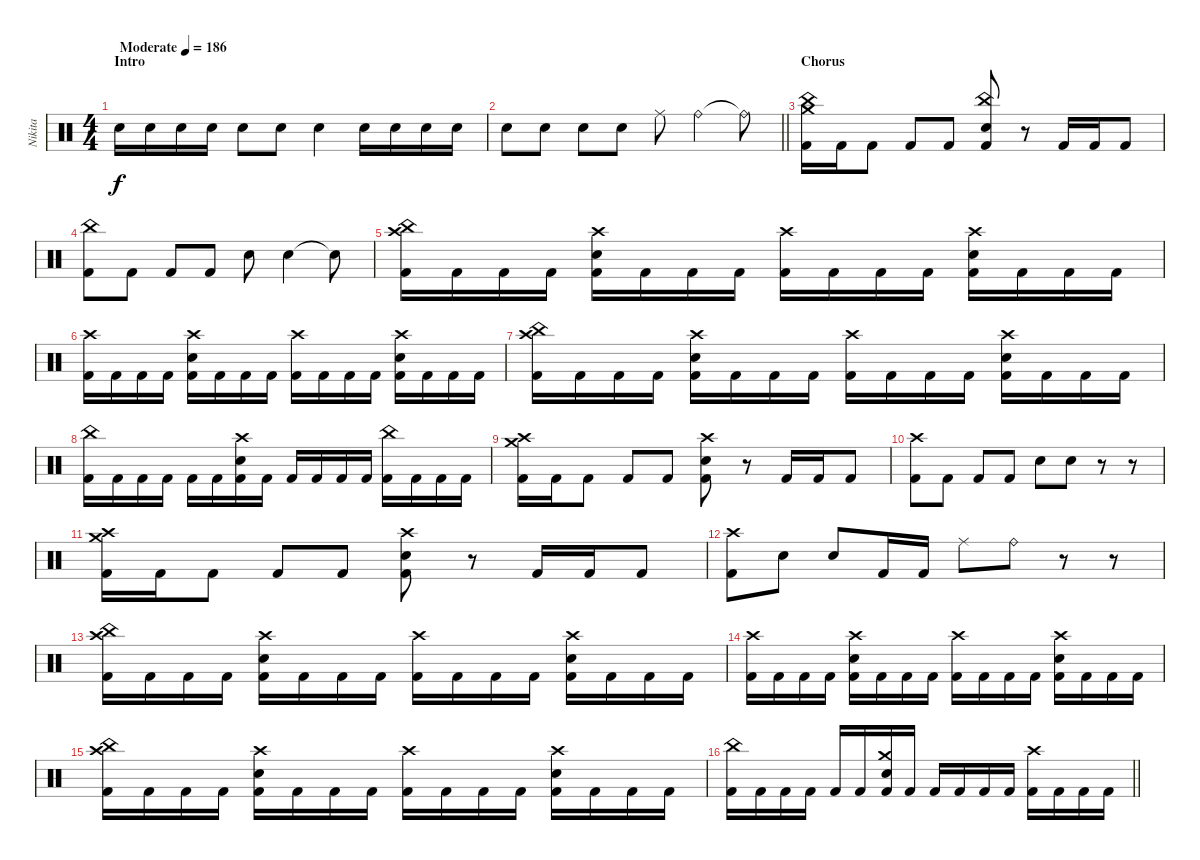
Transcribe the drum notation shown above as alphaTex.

\track ("Nikita" "Nikita") {instrument percussion}
\staff {score}
\articulation defaults
\ts (4 4)
\section ("" "Intro")
\tempo (186 "Moderate")
\clef neutral
\ks c "Electric Snare (hit)".16{dy f} "Electric Snare (hit)".16 "Electric Snare (hit)".16 "Electric Snare (hit)".16 "Electric Snare (hit)".8 "Electric Snare (hit)".8 "Electric Snare (hit)".4 "Electric Snare (hit)".16 "Electric Snare (hit)".16 "Electric Snare (hit)".16 "Electric Snare (hit)".16
|
\barLineRight lightlight "Electric Snare (hit)".8 "Electric Snare (hit)".8 "Electric Snare (hit)".8 "Electric Snare (hit)".8 "Ride (middle)".8 "Ride (bell)".4 "Ride (bell)"{t}.8
|
\section ("" "Chorus")
("China (hit)" "Crash medium (hit)" "Kick (hit) 2").16 "Kick (hit) 2".16 "Kick (hit) 2".8 "Kick (hit) 2".8 "Kick (hit) 2".8 ("China (hit)" "Electric Snare (hit)" "Kick (hit) 2").8 r.8 "Kick (hit) 2".16 "Kick (hit) 2".16 "Kick (hit) 2".8 |
("China (hit)" "Kick (hit) 2").8 "Kick (hit) 2".8 "Kick (hit) 2".8 "Kick (hit) 2".8 "Electric Snare (hit)".8 "Electric Snare (hit)".4 "Electric Snare (hit)"{t}.8 |
("China (hit)" "Crash high (hit)" "Kick (hit) 2").16 "Kick (hit) 2".16 "Kick (hit) 2".16 "Kick (hit) 2".16 ("Crash high (hit)" "Electric Snare (hit)" "Kick (hit) 2").16 "Kick (hit) 2".16 "Kick (hit) 2".16 "Kick (hit) 2".16 ("Crash high (hit)" "Kick (hit) 2").16 "Kick (hit) 2".16 "Kick (hit) 2".16 "Kick (hit) 2".16 ("Crash high (hit)" "Electric Snare (hit)" "Kick (hit) 2").16 "Kick (hit) 2".16 "Kick (hit) 2".16 "Kick (hit) 2".16 |
("Crash high (hit)" "Kick (hit) 2").16 "Kick (hit) 2".16 "Kick (hit) 2".16 "Kick (hit) 2".16 ("Crash high (hit)" "Electric Snare (hit)" "Kick (hit) 2").16 "Kick (hit) 2".16 "Kick (hit) 2".16 "Kick (hit) 2".16 ("Crash high (hit)" "Kick (hit) 2").16 "Kick (hit) 2".16 "Kick (hit) 2".16 "Kick (hit) 2".16 ("Crash high (hit)" "Electric Snare (hit)" "Kick (hit) 2").16 "Kick (hit) 2".16 "Kick (hit) 2".16 "Kick (hit) 2".16 |
("China (hit)" "Crash high (hit)" "Kick (hit) 2").16 "Kick (hit) 2".16 "Kick (hit) 2".16 "Kick (hit) 2".16 ("Crash high (hit)" "Electric Snare (hit)" "Kick (hit) 2").16 "Kick (hit) 2".16 "Kick (hit) 2".16 "Kick (hit) 2".16 ("Crash high (hit)" "Kick (hit) 2").16 "Kick (hit) 2".16 "Kick (hit) 2".16 "Kick (hit) 2".16 ("Crash high (hit)" "Electric Snare (hit)" "Kick (hit) 2").16 "Kick (hit) 2".16 "Kick (hit) 2".16 "Kick (hit) 2".16 |
("China (hit)" "Kick (hit) 2").16 "Kick (hit) 2".16 "Kick (hit) 2".16 "Kick (hit) 2".16 "Kick (hit) 2".16 "Kick (hit) 2".16 ("Crash high (hit)" "Electric Snare (hit)" "Kick (hit) 2").16 "Kick (hit) 2".16 "Kick (hit) 2".16 "Kick (hit) 2".16 "Kick (hit) 2".16 "Kick (hit) 2".16 ("China (hit)" "Kick (hit) 2").16 "Kick (hit) 2".16 "Kick (hit) 2".16 "Kick (hit) 2".16 |
("Crash high (hit)" "Crash medium (hit)" "Kick (hit) 2").16 "Kick (hit) 2".16 "Kick (hit) 2".8 "Kick (hit) 2".8 "Kick (hit) 2".8 ("Crash high (hit)" "Electric Snare (hit)" "Kick (hit) 2").8 r.8 "Kick (hit) 2".16 "Kick (hit) 2".16 "Kick (hit) 2".8 |
("Crash high (hit)" "Kick (hit) 2").8 "Kick (hit) 2".8 "Kick (hit) 2".8 "Kick (hit) 2".8 "Electric Snare (hit)".8 "Electric Snare (hit)".8 r.8 r.8 |
("Crash high (hit)" "Crash medium (hit)" "Kick (hit) 2").16 "Kick (hit) 2".16 "Kick (hit) 2".8 "Kick (hit) 2".8 "Kick (hit) 2".8 ("Crash high (hit)" "Electric Snare (hit)" "Kick (hit) 2").8 r.8 "Kick (hit) 2".16 "Kick (hit) 2".16 "Kick (hit) 2".8 |
("Crash high (hit)" "Kick (hit) 2").8 "Electric Snare (hit)".8 "Electric Snare (hit)".8 "Kick (hit) 2".16 "Kick (hit) 2".16 "Ride (middle)".8 "Ride (bell)".8 r.8 r.8 |
("China (hit)" "Crash high (hit)" "Kick (hit) 2").16 "Kick (hit) 2".16 "Kick (hit) 2".16 "Kick (hit) 2".16 ("Crash high (hit)" "Electric Snare (hit)" "Kick (hit) 2").16 "Kick (hit) 2".16 "Kick (hit) 2".16 "Kick (hit) 2".16 ("Crash high (hit)" "Kick (hit) 2").16 "Kick (hit) 2".16 "Kick (hit) 2".16 "Kick (hit) 2".16 ("Crash high (hit)" "Electric Snare (hit)" "Kick (hit) 2").16 "Kick (hit) 2".16 "Kick (hit) 2".16 "Kick (hit) 2".16 |
("Crash high (hit)" "Kick (hit) 2").16 "Kick (hit) 2".16 "Kick (hit) 2".16 "Kick (hit) 2".16 ("Crash high (hit)" "Electric Snare (hit)" "Kick (hit) 2").16 "Kick (hit) 2".16 "Kick (hit) 2".16 "Kick (hit) 2".16 ("Crash high (hit)" "Kick (hit) 2").16 "Kick (hit) 2".16 "Kick (hit) 2".16 "Kick (hit) 2".16 ("Crash high (hit)" "Electric Snare (hit)" "Kick (hit) 2").16 "Kick (hit) 2".16 "Kick (hit) 2".16 "Kick (hit) 2".16 |
("China (hit)" "Crash high (hit)" "Kick (hit) 2").16 "Kick (hit) 2".16 "Kick (hit) 2".16 "Kick (hit) 2".16 ("Crash high (hit)" "Electric Snare (hit)" "Kick (hit) 2").16 "Kick (hit) 2".16 "Kick (hit) 2".16 "Kick (hit) 2".16 ("Crash high (hit)" "Kick (hit) 2").16 "Kick (hit) 2".16 "Kick (hit) 2".16 "Kick (hit) 2".16 ("Crash high (hit)" "Electric Snare (hit)" "Kick (hit) 2").16 "Kick (hit) 2".16 "Kick (hit) 2".16 "Kick (hit) 2".16 |
\barLineRight lightlight
("China (hit)" "Kick (hit) 2").16 "Kick (hit) 2".16 "Kick (hit) 2".16 "Kick (hit) 2".16 "Kick (hit) 2".16 "Kick (hit) 2".16 ("Crash medium (hit)" "Electric Snare (hit)" "Kick (hit) 2").16 "Kick (hit) 2".16 "Kick (hit) 2".16 "Kick (hit) 2".16 "Kick (hit) 2".16 "Kick (hit) 2".16 ("Crash high (hit)" "Kick (hit) 2").16 "Kick (hit) 2".16 "Kick (hit) 2".16 "Kick (hit) 2".16
